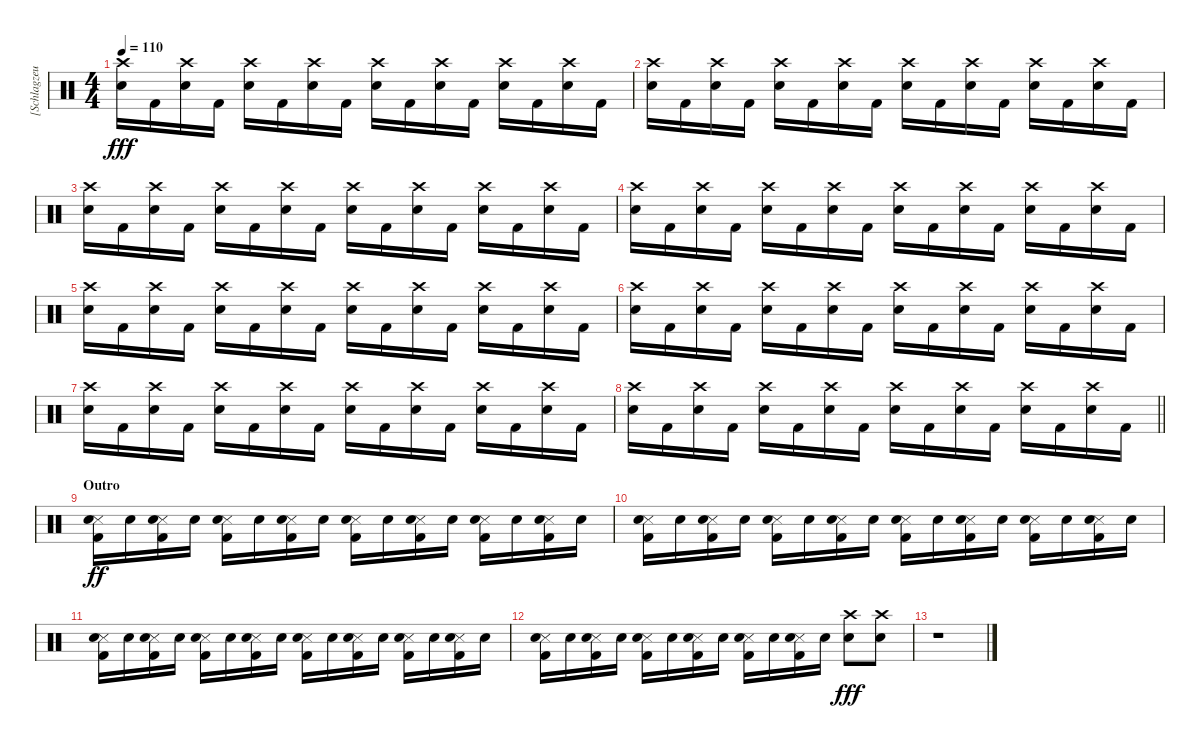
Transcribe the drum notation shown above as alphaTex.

\track ("[Schlagzeug]" "[Schlagzeu") {instrument percussion}
\staff {score}
\articulation defaults
\ts (4 4)
\tempo 110
\clef neutral
\ks c
("Crash high (hit)" "Electric Snare (hit)").16{dy fff} "Kick (hit) 2".16 ("Crash high (hit)" "Electric Snare (hit)").16 "Kick (hit) 2".16 ("Crash high (hit)" "Electric Snare (hit)").16 "Kick (hit) 2".16 ("Crash high (hit)" "Electric Snare (hit)").16 "Kick (hit) 2".16 ("Crash high (hit)" "Electric Snare (hit)").16 "Kick (hit) 2".16 ("Crash high (hit)" "Electric Snare (hit)").16 "Kick (hit) 2".16 ("Crash high (hit)" "Electric Snare (hit)").16 "Kick (hit) 2".16 ("Crash high (hit)" "Electric Snare (hit)").16 "Kick (hit) 2".16 |
("Crash high (hit)" "Electric Snare (hit)").16 "Kick (hit) 2".16 ("Crash high (hit)" "Electric Snare (hit)").16 "Kick (hit) 2".16 ("Crash high (hit)" "Electric Snare (hit)").16 "Kick (hit) 2".16 ("Crash high (hit)" "Electric Snare (hit)").16 "Kick (hit) 2".16 ("Crash high (hit)" "Electric Snare (hit)").16 "Kick (hit) 2".16 ("Crash high (hit)" "Electric Snare (hit)").16 "Kick (hit) 2".16 ("Crash high (hit)" "Electric Snare (hit)").16 "Kick (hit) 2".16 ("Crash high (hit)" "Electric Snare (hit)").16 "Kick (hit) 2".16 |
("Crash high (hit)" "Electric Snare (hit)").16 "Kick (hit) 2".16 ("Crash high (hit)" "Electric Snare (hit)").16 "Kick (hit) 2".16 ("Crash high (hit)" "Electric Snare (hit)").16 "Kick (hit) 2".16 ("Crash high (hit)" "Electric Snare (hit)").16 "Kick (hit) 2".16 ("Crash high (hit)" "Electric Snare (hit)").16 "Kick (hit) 2".16 ("Crash high (hit)" "Electric Snare (hit)").16 "Kick (hit) 2".16 ("Crash high (hit)" "Electric Snare (hit)").16 "Kick (hit) 2".16 ("Crash high (hit)" "Electric Snare (hit)").16 "Kick (hit) 2".16 |
("Crash high (hit)" "Electric Snare (hit)").16 "Kick (hit) 2".16 ("Crash high (hit)" "Electric Snare (hit)").16 "Kick (hit) 2".16 ("Crash high (hit)" "Electric Snare (hit)").16 "Kick (hit) 2".16 ("Crash high (hit)" "Electric Snare (hit)").16 "Kick (hit) 2".16 ("Crash high (hit)" "Electric Snare (hit)").16 "Kick (hit) 2".16 ("Crash high (hit)" "Electric Snare (hit)").16 "Kick (hit) 2".16 ("Crash high (hit)" "Electric Snare (hit)").16 "Kick (hit) 2".16 ("Crash high (hit)" "Electric Snare (hit)").16 "Kick (hit) 2".16 |
("Crash high (hit)" "Electric Snare (hit)").16 "Kick (hit) 2".16 ("Crash high (hit)" "Electric Snare (hit)").16 "Kick (hit) 2".16 ("Crash high (hit)" "Electric Snare (hit)").16 "Kick (hit) 2".16 ("Crash high (hit)" "Electric Snare (hit)").16 "Kick (hit) 2".16 ("Crash high (hit)" "Electric Snare (hit)").16 "Kick (hit) 2".16 ("Crash high (hit)" "Electric Snare (hit)").16 "Kick (hit) 2".16 ("Crash high (hit)" "Electric Snare (hit)").16 "Kick (hit) 2".16 ("Crash high (hit)" "Electric Snare (hit)").16 "Kick (hit) 2".16 |
("Crash high (hit)" "Electric Snare (hit)").16 "Kick (hit) 2".16 ("Crash high (hit)" "Electric Snare (hit)").16 "Kick (hit) 2".16 ("Crash high (hit)" "Electric Snare (hit)").16 "Kick (hit) 2".16 ("Crash high (hit)" "Electric Snare (hit)").16 "Kick (hit) 2".16 ("Crash high (hit)" "Electric Snare (hit)").16 "Kick (hit) 2".16 ("Crash high (hit)" "Electric Snare (hit)").16 "Kick (hit) 2".16 ("Crash high (hit)" "Electric Snare (hit)").16 "Kick (hit) 2".16 ("Crash high (hit)" "Electric Snare (hit)").16 "Kick (hit) 2".16 |
("Crash high (hit)" "Electric Snare (hit)").16 "Kick (hit) 2".16 ("Crash high (hit)" "Electric Snare (hit)").16 "Kick (hit) 2".16 ("Crash high (hit)" "Electric Snare (hit)").16 "Kick (hit) 2".16 ("Crash high (hit)" "Electric Snare (hit)").16 "Kick (hit) 2".16 ("Crash high (hit)" "Electric Snare (hit)").16 "Kick (hit) 2".16 ("Crash high (hit)" "Electric Snare (hit)").16 "Kick (hit) 2".16 ("Crash high (hit)" "Electric Snare (hit)").16 "Kick (hit) 2".16 ("Crash high (hit)" "Electric Snare (hit)").16 "Kick (hit) 2".16 |
\barLineRight lightlight
("Crash high (hit)" "Electric Snare (hit)").16 "Kick (hit) 2".16 ("Crash high (hit)" "Electric Snare (hit)").16 "Kick (hit) 2".16 ("Crash high (hit)" "Electric Snare (hit)").16 "Kick (hit) 2".16 ("Crash high (hit)" "Electric Snare (hit)").16 "Kick (hit) 2".16 ("Crash high (hit)" "Electric Snare (hit)").16 "Kick (hit) 2".16 ("Crash high (hit)" "Electric Snare (hit)").16 "Kick (hit) 2".16 ("Crash high (hit)" "Electric Snare (hit)").16 "Kick (hit) 2".16 ("Crash high (hit)" "Electric Snare (hit)").16 "Kick (hit) 2".16 |
\section ("" "Outro")
("Snare (side stick) 3" "Kick (hit) 2" "Electric Snare (hit)").16{dy ff} "Electric Snare (hit)".16 ("Snare (side stick) 3" "Kick (hit) 2" "Electric Snare (hit)").16 "Electric Snare (hit)".16 ("Snare (side stick) 3" "Kick (hit) 2" "Electric Snare (hit)").16 "Electric Snare (hit)".16 ("Snare (side stick) 3" "Kick (hit) 2" "Electric Snare (hit)").16 "Electric Snare (hit)".16 ("Snare (side stick) 3" "Kick (hit) 2" "Electric Snare (hit)").16 "Electric Snare (hit)".16 ("Snare (side stick) 3" "Kick (hit) 2" "Electric Snare (hit)").16 "Electric Snare (hit)".16 ("Snare (side stick) 3" "Kick (hit) 2" "Electric Snare (hit)").16 "Electric Snare (hit)".16 ("Snare (side stick) 3" "Kick (hit) 2" "Electric Snare (hit)").16 "Electric Snare (hit)".16 |
("Snare (side stick) 3" "Kick (hit) 2" "Electric Snare (hit)").16 "Electric Snare (hit)".16 ("Snare (side stick) 3" "Kick (hit) 2" "Electric Snare (hit)").16 "Electric Snare (hit)".16 ("Snare (side stick) 3" "Kick (hit) 2" "Electric Snare (hit)").16 "Electric Snare (hit)".16 ("Snare (side stick) 3" "Kick (hit) 2" "Electric Snare (hit)").16 "Electric Snare (hit)".16 ("Snare (side stick) 3" "Kick (hit) 2" "Electric Snare (hit)").16 "Electric Snare (hit)".16 ("Snare (side stick) 3" "Kick (hit) 2" "Electric Snare (hit)").16 "Electric Snare (hit)".16 ("Snare (side stick) 3" "Kick (hit) 2" "Electric Snare (hit)").16 "Electric Snare (hit)".16 ("Snare (side stick) 3" "Kick (hit) 2" "Electric Snare (hit)").16 "Electric Snare (hit)".16 |
("Snare (side stick) 3" "Kick (hit) 2" "Electric Snare (hit)").16 "Electric Snare (hit)".16 ("Snare (side stick) 3" "Kick (hit) 2" "Electric Snare (hit)").16 "Electric Snare (hit)".16 ("Snare (side stick) 3" "Kick (hit) 2" "Electric Snare (hit)").16 "Electric Snare (hit)".16 ("Snare (side stick) 3" "Kick (hit) 2" "Electric Snare (hit)").16 "Electric Snare (hit)".16 ("Snare (side stick) 3" "Kick (hit) 2" "Electric Snare (hit)").16 "Electric Snare (hit)".16 ("Snare (side stick) 3" "Kick (hit) 2" "Electric Snare (hit)").16 "Electric Snare (hit)".16 ("Snare (side stick) 3" "Kick (hit) 2" "Electric Snare (hit)").16 "Electric Snare (hit)".16 ("Snare (side stick) 3" "Kick (hit) 2" "Electric Snare (hit)").16 "Electric Snare (hit)".16 |
("Snare (side stick) 3" "Kick (hit) 2" "Electric Snare (hit)").16 "Electric Snare (hit)".16 ("Snare (side stick) 3" "Kick (hit) 2" "Electric Snare (hit)").16 "Electric Snare (hit)".16 ("Snare (side stick) 3" "Kick (hit) 2" "Electric Snare (hit)").16 "Electric Snare (hit)".16 ("Snare (side stick) 3" "Kick (hit) 2" "Electric Snare (hit)").16 "Electric Snare (hit)".16 ("Snare (side stick) 3" "Kick (hit) 2" "Electric Snare (hit)").16 "Electric Snare (hit)".16 ("Snare (side stick) 3" "Kick (hit) 2" "Electric Snare (hit)").16 "Electric Snare (hit)".16 ("Crash high (hit)" "Electric Snare (hit)").8{dy fff} ("Crash high (hit)" "Electric Snare (hit)").8 |
r.1{volume 0}
